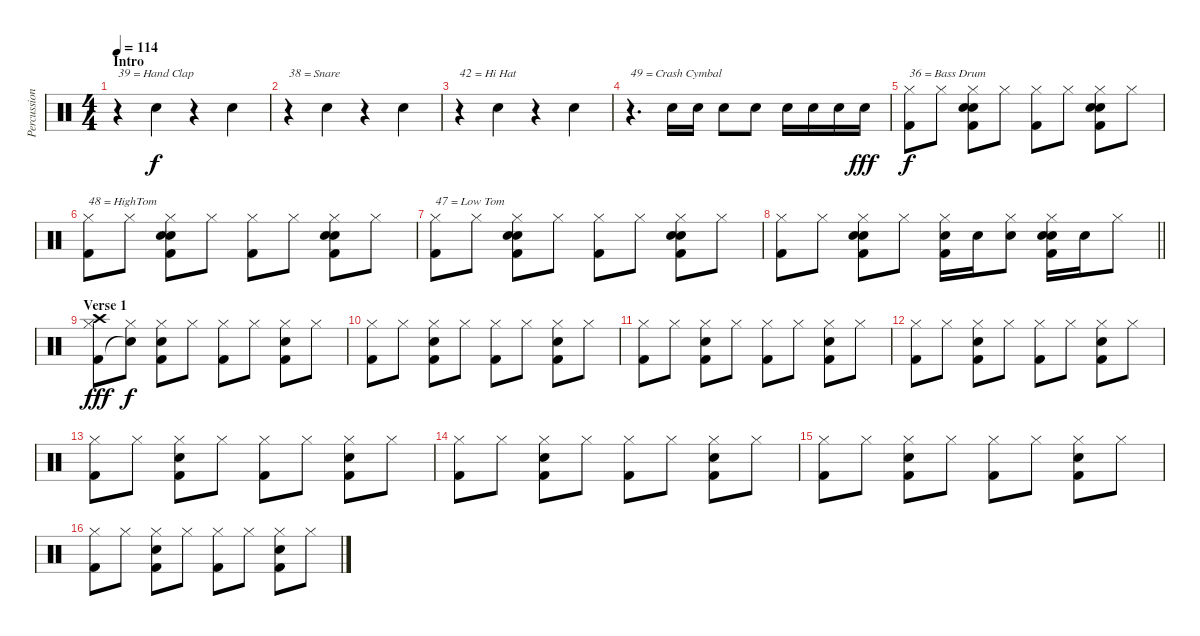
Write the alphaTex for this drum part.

\track ("Percussion" "Percussion") {instrument percussion}
\staff {score}
\articulation defaults
\ts (4 4)
\section ("" "Intro")
\tempo 114
\clef neutral
\ks c
r.4{txt "39 = Hand Clap" dy f} "Hand Clap (hit)".4 r.4 "Hand Clap (hit)".4 |
r.4{txt "38 = Snare"} "Hand Clap (hit)".4 r.4 "Hand Clap (hit)".4 |
r.4{txt "42 = Hi Hat"} "Hand Clap (hit)".4 r.4 "Hand Clap (hit)".4 |
r.4{d txt "49 = Crash Cymbal"} "Snare (hit) 2".16 "Snare (hit) 2".16 "Snare (hit) 2".8 "Snare (hit) 2".8 "Snare (hit) 2".16 "Snare (hit) 2".16 "Snare (hit) 2".16 "Snare (hit) 2".16{dy fff} |
("Hi-Hat (closed)" "Kick (hit) 2").8{txt "36 = Bass Drum" dy f} "Hi-Hat (closed)".8 ("Hand Clap (hit)" "Hi-Hat (closed)" "Snare (hit) 2" "Kick (hit) 2").8 "Hi-Hat (closed)".8 ("Hi-Hat (closed)" "Kick (hit) 2").8 "Hi-Hat (closed)".8 ("Hand Clap (hit)" "Hi-Hat (closed)" "Snare (hit) 2" "Kick (hit) 2").8 "Hi-Hat (closed)".8 |
("Hi-Hat (closed)" "Kick (hit) 2").8{txt "48 = HighTom"} "Hi-Hat (closed)".8 ("Hand Clap (hit)" "Hi-Hat (closed)" "Snare (hit) 2" "Kick (hit) 2").8 "Hi-Hat (closed)".8 ("Hi-Hat (closed)" "Kick (hit) 2").8 "Hi-Hat (closed)".8 ("Hand Clap (hit)" "Hi-Hat (closed)" "Snare (hit) 2" "Kick (hit) 2").8 "Hi-Hat (closed)".8 |
("Hi-Hat (closed)" "Kick (hit) 2").8{txt "47 = Low Tom"} "Hi-Hat (closed)".8 ("Hand Clap (hit)" "Hi-Hat (closed)" "Snare (hit) 2" "Kick (hit) 2").8 "Hi-Hat (closed)".8 ("Hi-Hat (closed)" "Kick (hit) 2").8 "Hi-Hat (closed)".8 ("Hand Clap (hit)" "Hi-Hat (closed)" "Snare (hit) 2" "Kick (hit) 2").8 "Hi-Hat (closed)".8 |
\barLineRight lightlight
("Hi-Hat (closed)" "Kick (hit) 2").8 "Hi-Hat (closed)".8 ("Hand Clap (hit)" "Hi-Hat (closed)" "Snare (hit) 2" "Kick (hit) 2").8 "Hi-Hat (closed)".8 ("Hi-Hat (closed)" "Snare (hit) 2" "Kick (hit) 2").16 "Snare (hit) 2".16 ("Hi-Hat (closed)" "Snare (hit) 2").8 ("Hand Clap (hit)" "Hi-Hat (closed)" "Snare (hit) 2" "Kick (hit) 2").16 "Snare (hit) 2".16 "Hi-Hat (closed)".8 |
\section ("" "Verse 1")
("Hi-Hat (closed)" "Kick (hit) 2" "Crash high (hit)").8{dy fff} ("Hi-Hat (closed)" "Snare (hit)"{t}).8{dy f} ("Hi-Hat (closed)" "Snare (hit) 2" "Kick (hit) 2").8 "Hi-Hat (closed)".8 ("Hi-Hat (closed)" "Kick (hit) 2").8 "Hi-Hat (closed)".8 ("Hi-Hat (closed)" "Snare (hit) 2" "Kick (hit) 2").8 "Hi-Hat (closed)".8 |
("Hi-Hat (closed)" "Kick (hit) 2").8 "Hi-Hat (closed)".8 ("Hi-Hat (closed)" "Snare (hit) 2" "Kick (hit) 2").8 "Hi-Hat (closed)".8 ("Hi-Hat (closed)" "Kick (hit) 2").8 "Hi-Hat (closed)".8 ("Hi-Hat (closed)" "Snare (hit) 2" "Kick (hit) 2").8 "Hi-Hat (closed)".8 |
("Hi-Hat (closed)" "Kick (hit) 2").8 "Hi-Hat (closed)".8 ("Hi-Hat (closed)" "Snare (hit) 2" "Kick (hit) 2").8 "Hi-Hat (closed)".8 ("Hi-Hat (closed)" "Kick (hit) 2").8 "Hi-Hat (closed)".8 ("Hi-Hat (closed)" "Snare (hit) 2" "Kick (hit) 2").8 "Hi-Hat (closed)".8 |
("Hi-Hat (closed)" "Kick (hit) 2").8 "Hi-Hat (closed)".8 ("Hi-Hat (closed)" "Snare (hit) 2" "Kick (hit) 2").8 "Hi-Hat (closed)".8 ("Hi-Hat (closed)" "Kick (hit) 2").8 "Hi-Hat (closed)".8 ("Hi-Hat (closed)" "Snare (hit) 2" "Kick (hit) 2").8 "Hi-Hat (closed)".8 |
("Hi-Hat (closed)" "Kick (hit) 2").8 "Hi-Hat (closed)".8 ("Hi-Hat (closed)" "Snare (hit) 2" "Kick (hit) 2").8 "Hi-Hat (closed)".8 ("Hi-Hat (closed)" "Kick (hit) 2").8 "Hi-Hat (closed)".8 ("Hi-Hat (closed)" "Snare (hit) 2" "Kick (hit) 2").8 "Hi-Hat (closed)".8 |
("Hi-Hat (closed)" "Kick (hit) 2").8 "Hi-Hat (closed)".8 ("Hi-Hat (closed)" "Snare (hit) 2" "Kick (hit) 2").8 "Hi-Hat (closed)".8 ("Hi-Hat (closed)" "Kick (hit) 2").8 "Hi-Hat (closed)".8 ("Hi-Hat (closed)" "Snare (hit) 2" "Kick (hit) 2").8 "Hi-Hat (closed)".8 |
("Hi-Hat (closed)" "Kick (hit) 2").8 "Hi-Hat (closed)".8 ("Hi-Hat (closed)" "Snare (hit) 2" "Kick (hit) 2").8 "Hi-Hat (closed)".8 ("Hi-Hat (closed)" "Kick (hit) 2").8 "Hi-Hat (closed)".8 ("Hi-Hat (closed)" "Snare (hit) 2" "Kick (hit) 2").8 "Hi-Hat (closed)".8 |
("Hi-Hat (closed)" "Kick (hit) 2").8 "Hi-Hat (closed)".8 ("Hi-Hat (closed)" "Snare (hit) 2" "Kick (hit) 2").8 "Hi-Hat (closed)".8 ("Hi-Hat (closed)" "Kick (hit) 2").8 "Hi-Hat (closed)".8 ("Hi-Hat (closed)" "Snare (hit) 2" "Kick (hit) 2").8 "Hi-Hat (closed)".8
